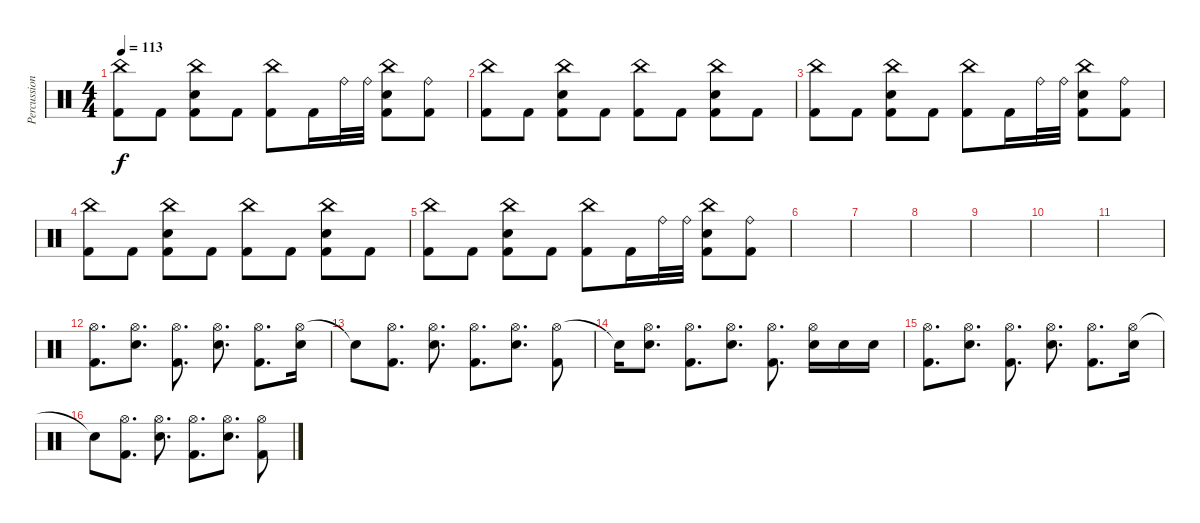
\track ("Percussion" "Percussion") {instrument percussion}
\staff {score}
\articulation defaults
\ts (4 4)
\tempo 113
\clef neutral
\ks c
("China (hit)" "Kick (hit) 2").8{dy f} "Kick (hit) 2".8 ("China (hit)" "Electric Snare (hit)" "Kick (hit) 2").8 "Kick (hit) 2".8 ("China (hit)" "Kick (hit) 2").8 "Kick (hit) 2".16 "Ride (bell)".32 "Ride (bell)".32 ("China (hit)" "Electric Snare (hit)" "Kick (hit) 2").8 ("Ride (bell)" "Kick (hit) 2").8 |
("China (hit)" "Kick (hit) 2").8 "Kick (hit) 2".8 ("China (hit)" "Electric Snare (hit)" "Kick (hit) 2").8 "Kick (hit) 2".8 ("China (hit)" "Kick (hit) 2").8 "Kick (hit) 2".8 ("China (hit)" "Electric Snare (hit)" "Kick (hit) 2").8 "Kick (hit) 2".8 |
("China (hit)" "Kick (hit) 2").8 "Kick (hit) 2".8 ("China (hit)" "Electric Snare (hit)" "Kick (hit) 2").8 "Kick (hit) 2".8 ("China (hit)" "Kick (hit) 2").8 "Kick (hit) 2".16 "Ride (bell)".32 "Ride (bell)".32 ("China (hit)" "Electric Snare (hit)" "Kick (hit) 2").8 ("Ride (bell)" "Kick (hit) 2").8 |
("China (hit)" "Kick (hit) 2").8 "Kick (hit) 2".8 ("China (hit)" "Electric Snare (hit)" "Kick (hit) 2").8 "Kick (hit) 2".8 ("China (hit)" "Kick (hit) 2").8 "Kick (hit) 2".8 ("China (hit)" "Electric Snare (hit)" "Kick (hit) 2").8 "Kick (hit) 2".8 |
("China (hit)" "Kick (hit) 2").8 "Kick (hit) 2".8 ("China (hit)" "Electric Snare (hit)" "Kick (hit) 2").8 "Kick (hit) 2".8 ("China (hit)" "Kick (hit) 2").8 "Kick (hit) 2".16 "Ride (bell)".32 "Ride (bell)".32 ("China (hit)" "Electric Snare (hit)" "Kick (hit) 2").8 ("Ride (bell)" "Kick (hit) 2").8 |
|
|
|
|
|
|
("Hi-Hat (open)" "Kick (hit) 2").8{d} ("Hi-Hat (open)" "Electric Snare (hit)").8{d} ("Hi-Hat (open)" "Kick (hit) 2").8{d} ("Hi-Hat (open)" "Electric Snare (hit)").8{d} ("Hi-Hat (open)" "Kick (hit) 2").8{d} ("Hi-Hat (open)" "Electric Snare (hit)").16 |
"Snare (hit)"{t}.8 ("Hi-Hat (open)" "Kick (hit) 2").8{d} ("Hi-Hat (open)" "Electric Snare (hit)").8{d} ("Hi-Hat (open)" "Kick (hit) 2").8{d} ("Hi-Hat (open)" "Electric Snare (hit)").8{d} ("Hi-Hat (open)" "Kick (hit) 2").8 |
"Snare (hit)"{t}.16 ("Hi-Hat (open)" "Electric Snare (hit)").8{d} ("Hi-Hat (open)" "Kick (hit) 2").8{d} ("Hi-Hat (open)" "Electric Snare (hit)").8{d} ("Hi-Hat (open)" "Kick (hit) 2").8{d} ("Hi-Hat (open)" "Electric Snare (hit)").16 "Electric Snare (hit)".16 "Electric Snare (hit)".16 |
("Hi-Hat (open)" "Kick (hit) 2").8{d} ("Hi-Hat (open)" "Electric Snare (hit)").8{d} ("Hi-Hat (open)" "Kick (hit) 2").8{d} ("Hi-Hat (open)" "Electric Snare (hit)").8{d} ("Hi-Hat (open)" "Kick (hit) 2").8{d} ("Hi-Hat (open)" "Electric Snare (hit)").16 |
"Snare (hit)"{t}.8 ("Hi-Hat (open)" "Kick (hit) 2").8{d} ("Hi-Hat (open)" "Electric Snare (hit)").8{d} ("Hi-Hat (open)" "Kick (hit) 2").8{d} ("Hi-Hat (open)" "Electric Snare (hit)").8{d} ("Hi-Hat (open)" "Kick (hit) 2").8
